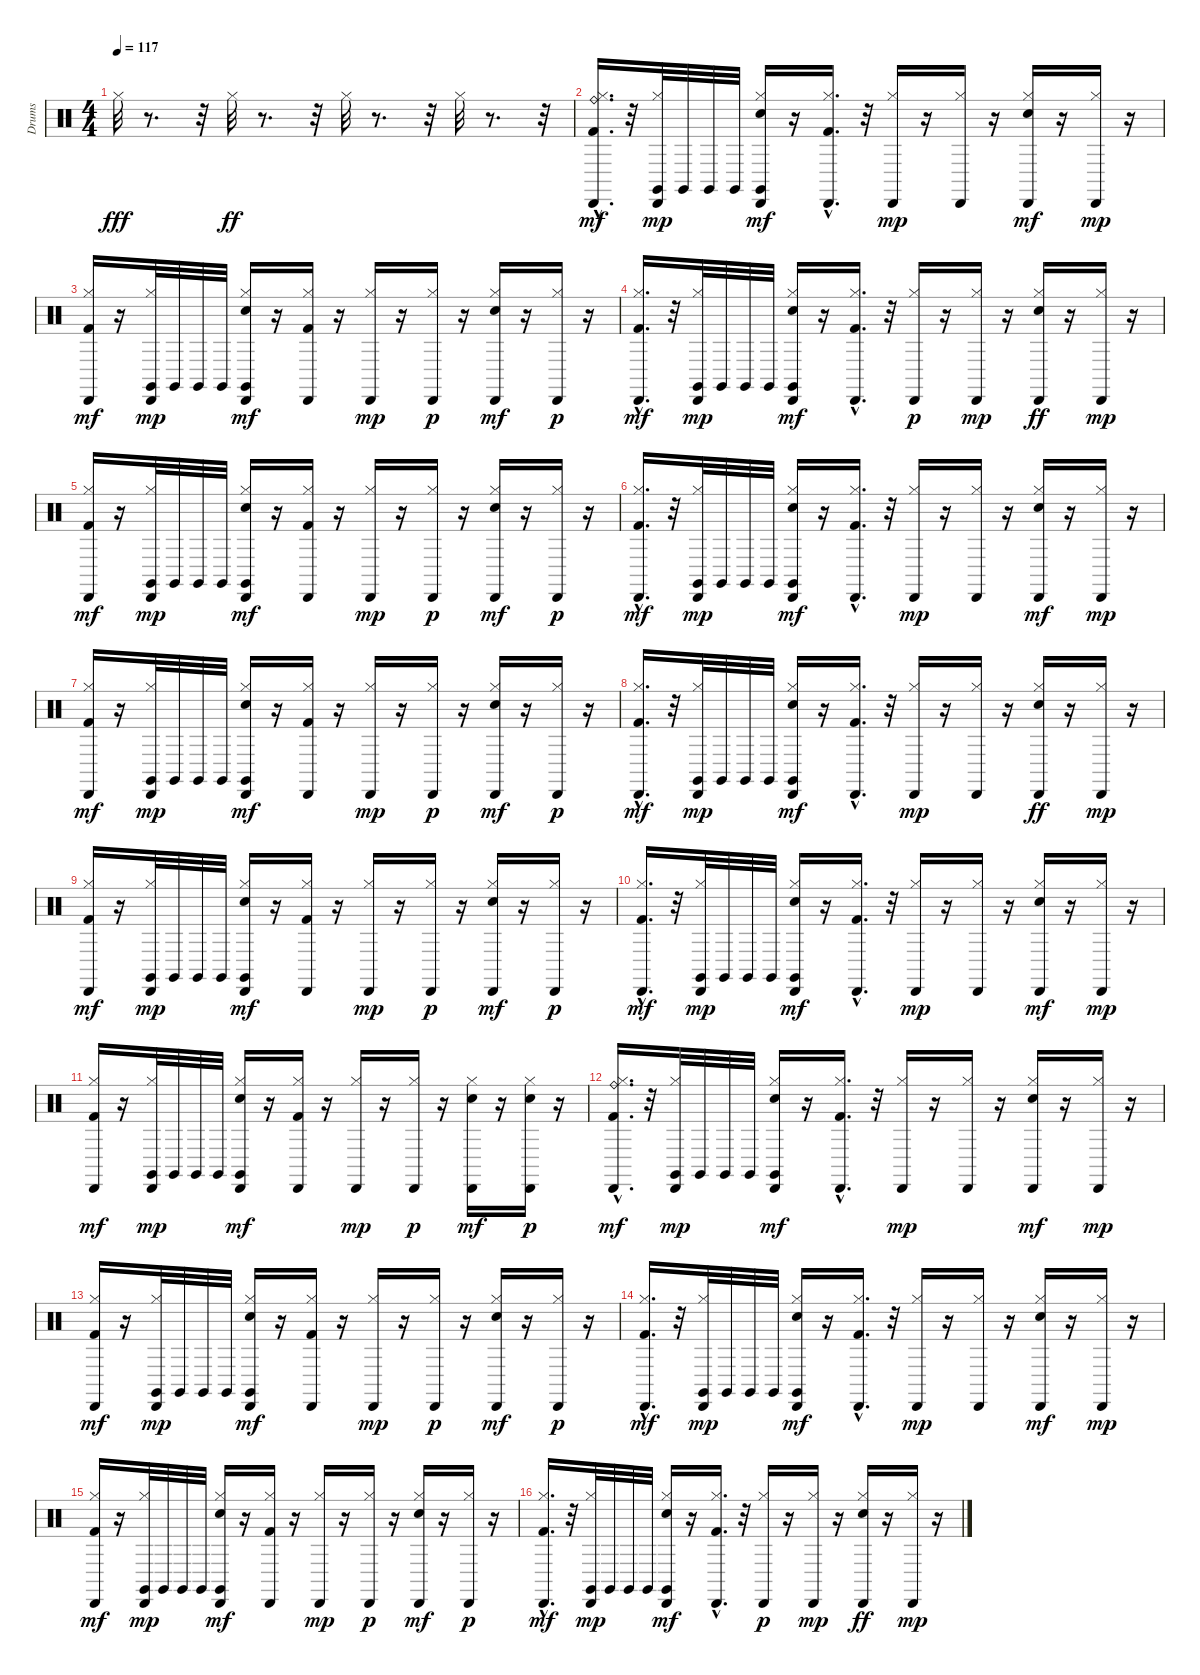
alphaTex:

\track ("Drums" "Drums") {instrument percussion}
\staff {score}
\articulation defaults
\ts (4 4)
\tempo 117
\clef neutral
\ks c "Hi-Hat (closed)".32{dy fff}
r.8{d} r.32 "Hi-Hat (closed)".32{dy ff} r.8{d} r.32 "Hi-Hat (closed)".32 r.8{d} r.32 "Hi-Hat (closed)".32 r.8{d} r.32 |
("Kick (hit) 2"{hac} "Hi-Hat (closed)" "Ride (bell)" "Cabasa (hit)").16{d dy mf} r.32 ("Hi-Hat (closed)" "Cabasa (hit)" "Claves (hit)").32{dy mp} "Claves (hit)".32 "Claves (hit)".32 "Claves (hit)".32 ("Electric Snare (hit)" "Hi-Hat (closed)" "Cabasa (hit)" "Claves (hit)").16{dy mf} r.16 ("Kick (hit) 2"{hac} "Hi-Hat (closed)" "Cabasa (hit)").16{d} r.32 ("Hi-Hat (closed)" "Cabasa (hit)").16{dy mp} r.16 ("Hi-Hat (closed)" "Cabasa (hit)").16 r.16 ("Electric Snare (hit)" "Hi-Hat (closed)" "Cabasa (hit)").16{dy mf} r.16 ("Hi-Hat (closed)" "Cabasa (hit)").16{dy mp} r.16 |
("Kick (hit) 2" "Hi-Hat (closed)" "Cabasa (hit)").16{dy mf} r.16 ("Hi-Hat (closed)" "Cabasa (hit)" "Claves (hit)").32{dy mp} "Claves (hit)".32 "Claves (hit)".32 "Claves (hit)".32 ("Electric Snare (hit)" "Hi-Hat (closed)" "Cabasa (hit)" "Claves (hit)").16{dy mf} r.16 ("Kick (hit) 2" "Hi-Hat (closed)" "Cabasa (hit)").16 r.16 ("Hi-Hat (closed)" "Cabasa (hit)").16{dy mp} r.16 ("Hi-Hat (closed)" "Cabasa (hit)").16{dy p} r.16 ("Electric Snare (hit)" "Hi-Hat (closed)" "Cabasa (hit)").16{dy mf} r.16 ("Hi-Hat (closed)" "Cabasa (hit)").16{dy p} r.16 |
("Kick (hit) 2"{hac} "Hi-Hat (closed)" "Cabasa (hit)").16{d dy mf} r.32 ("Hi-Hat (closed)" "Cabasa (hit)" "Claves (hit)").32{dy mp} "Claves (hit)".32 "Claves (hit)".32 "Claves (hit)".32 ("Electric Snare (hit)" "Hi-Hat (closed)" "Cabasa (hit)" "Claves (hit)").16{dy mf} r.16 ("Kick (hit) 2"{hac} "Hi-Hat (closed)" "Cabasa (hit)").16{d} r.32 ("Hi-Hat (closed)" "Cabasa (hit)").16{dy p} r.16 ("Hi-Hat (closed)" "Cabasa (hit)").16{dy mp} r.16 ("Electric Snare (hit)" "Hi-Hat (closed)" "Cabasa (hit)").16{dy ff} r.16 ("Hi-Hat (closed)" "Cabasa (hit)").16{dy mp} r.16 |
("Kick (hit) 2" "Hi-Hat (closed)" "Cabasa (hit)").16{dy mf} r.16 ("Hi-Hat (closed)" "Cabasa (hit)" "Claves (hit)").32{dy mp} "Claves (hit)".32 "Claves (hit)".32 "Claves (hit)".32 ("Electric Snare (hit)" "Hi-Hat (closed)" "Cabasa (hit)" "Claves (hit)").16{dy mf} r.16 ("Kick (hit) 2" "Hi-Hat (closed)" "Cabasa (hit)").16 r.16 ("Hi-Hat (closed)" "Cabasa (hit)").16{dy mp} r.16 ("Hi-Hat (closed)" "Cabasa (hit)").16{dy p} r.16 ("Electric Snare (hit)" "Hi-Hat (closed)" "Cabasa (hit)").16{dy mf} r.16 ("Hi-Hat (closed)" "Cabasa (hit)").16{dy p} r.16 |
("Kick (hit) 2"{hac} "Hi-Hat (closed)" "Cabasa (hit)").16{d dy mf} r.32 ("Hi-Hat (closed)" "Cabasa (hit)" "Claves (hit)").32{dy mp} "Claves (hit)".32 "Claves (hit)".32 "Claves (hit)".32 ("Electric Snare (hit)" "Hi-Hat (closed)" "Cabasa (hit)" "Claves (hit)").16{dy mf} r.16 ("Kick (hit) 2"{hac} "Hi-Hat (closed)" "Cabasa (hit)").16{d} r.32 ("Hi-Hat (closed)" "Cabasa (hit)").16{dy mp} r.16 ("Hi-Hat (closed)" "Cabasa (hit)").16 r.16 ("Electric Snare (hit)" "Hi-Hat (closed)" "Cabasa (hit)").16{dy mf} r.16 ("Hi-Hat (closed)" "Cabasa (hit)").16{dy mp} r.16 |
("Kick (hit) 2" "Hi-Hat (closed)" "Cabasa (hit)").16{dy mf} r.16 ("Hi-Hat (closed)" "Cabasa (hit)" "Claves (hit)").32{dy mp} "Claves (hit)".32 "Claves (hit)".32 "Claves (hit)".32 ("Electric Snare (hit)" "Hi-Hat (closed)" "Cabasa (hit)" "Claves (hit)").16{dy mf} r.16 ("Kick (hit) 2" "Hi-Hat (closed)" "Cabasa (hit)").16 r.16 ("Hi-Hat (closed)" "Cabasa (hit)").16{dy mp} r.16 ("Hi-Hat (closed)" "Cabasa (hit)").16{dy p} r.16 ("Electric Snare (hit)" "Hi-Hat (closed)" "Cabasa (hit)").16{dy mf} r.16 ("Hi-Hat (closed)" "Cabasa (hit)").16{dy p} r.16 |
("Kick (hit) 2"{hac} "Hi-Hat (closed)" "Cabasa (hit)").16{d dy mf} r.32 ("Hi-Hat (closed)" "Cabasa (hit)" "Claves (hit)").32{dy mp} "Claves (hit)".32 "Claves (hit)".32 "Claves (hit)".32 ("Electric Snare (hit)" "Hi-Hat (closed)" "Cabasa (hit)" "Claves (hit)").16{dy mf} r.16 ("Kick (hit) 2"{hac} "Hi-Hat (closed)" "Cabasa (hit)").16{d} r.32 ("Hi-Hat (closed)" "Cabasa (hit)").16{dy mp} r.16 ("Hi-Hat (closed)" "Cabasa (hit)").16 r.16 ("Electric Snare (hit)" "Hi-Hat (closed)" "Cabasa (hit)").16{dy ff} r.16 ("Hi-Hat (closed)" "Cabasa (hit)").16{dy mp} r.16 |
("Kick (hit) 2" "Hi-Hat (closed)" "Cabasa (hit)").16{dy mf} r.16 ("Hi-Hat (closed)" "Cabasa (hit)" "Claves (hit)").32{dy mp} "Claves (hit)".32 "Claves (hit)".32 "Claves (hit)".32 ("Electric Snare (hit)" "Hi-Hat (closed)" "Cabasa (hit)" "Claves (hit)").16{dy mf} r.16 ("Kick (hit) 2" "Hi-Hat (closed)" "Cabasa (hit)").16 r.16 ("Hi-Hat (closed)" "Cabasa (hit)").16{dy mp} r.16 ("Hi-Hat (closed)" "Cabasa (hit)").16{dy p} r.16 ("Electric Snare (hit)" "Hi-Hat (closed)" "Cabasa (hit)").16{dy mf} r.16 ("Hi-Hat (closed)" "Cabasa (hit)").16{dy p} r.16 |
("Kick (hit) 2"{hac} "Hi-Hat (closed)" "Cabasa (hit)").16{d dy mf} r.32 ("Hi-Hat (closed)" "Cabasa (hit)" "Claves (hit)").32{dy mp} "Claves (hit)".32 "Claves (hit)".32 "Claves (hit)".32 ("Electric Snare (hit)" "Hi-Hat (closed)" "Cabasa (hit)" "Claves (hit)").16{dy mf} r.16 ("Kick (hit) 2"{hac} "Hi-Hat (closed)" "Cabasa (hit)").16{d} r.32 ("Hi-Hat (closed)" "Cabasa (hit)").16{dy mp} r.16 ("Hi-Hat (closed)" "Cabasa (hit)").16 r.16 ("Electric Snare (hit)" "Hi-Hat (closed)" "Cabasa (hit)").16{dy mf} r.16 ("Hi-Hat (closed)" "Cabasa (hit)").16{dy mp} r.16 |
("Kick (hit) 2" "Hi-Hat (closed)" "Cabasa (hit)").16{dy mf} r.16 ("Hi-Hat (closed)" "Cabasa (hit)" "Claves (hit)").32{dy mp} "Claves (hit)".32 "Claves (hit)".32 "Claves (hit)".32 ("Electric Snare (hit)" "Hi-Hat (closed)" "Cabasa (hit)" "Claves (hit)").16{dy mf} r.16 ("Kick (hit) 2" "Hi-Hat (closed)" "Cabasa (hit)").16 r.16 ("Hi-Hat (closed)" "Cabasa (hit)").16{dy mp} r.16 ("Hi-Hat (closed)" "Cabasa (hit)").16{dy p} r.16 ("Electric Snare (hit)" "Hi-Hat (closed)" "Cabasa (hit)").16{dy mf} r.16 ("Electric Snare (hit)" "Hi-Hat (closed)" "Cabasa (hit)").16{dy p} r.16 |
("Kick (hit) 2"{hac} "Hi-Hat (closed)" "Ride (bell)" "Cabasa (hit)").16{d dy mf} r.32 ("Hi-Hat (closed)" "Cabasa (hit)" "Claves (hit)").32{dy mp} "Claves (hit)".32 "Claves (hit)".32 "Claves (hit)".32 ("Electric Snare (hit)" "Hi-Hat (closed)" "Cabasa (hit)" "Claves (hit)").16{dy mf} r.16 ("Kick (hit) 2"{hac} "Hi-Hat (closed)" "Cabasa (hit)").16{d} r.32 ("Hi-Hat (closed)" "Cabasa (hit)").16{dy mp} r.16 ("Hi-Hat (closed)" "Cabasa (hit)").16 r.16 ("Electric Snare (hit)" "Hi-Hat (closed)" "Cabasa (hit)").16{dy mf} r.16 ("Hi-Hat (closed)" "Cabasa (hit)").16{dy mp} r.16 |
("Kick (hit) 2" "Hi-Hat (closed)" "Cabasa (hit)").16{dy mf} r.16 ("Hi-Hat (closed)" "Cabasa (hit)" "Claves (hit)").32{dy mp} "Claves (hit)".32 "Claves (hit)".32 "Claves (hit)".32 ("Electric Snare (hit)" "Hi-Hat (closed)" "Cabasa (hit)" "Claves (hit)").16{dy mf} r.16 ("Kick (hit) 2" "Hi-Hat (closed)" "Cabasa (hit)").16 r.16 ("Hi-Hat (closed)" "Cabasa (hit)").16{dy mp} r.16 ("Hi-Hat (closed)" "Cabasa (hit)").16{dy p} r.16 ("Electric Snare (hit)" "Hi-Hat (closed)" "Cabasa (hit)").16{dy mf} r.16 ("Hi-Hat (closed)" "Cabasa (hit)").16{dy p} r.16 |
("Kick (hit) 2"{hac} "Hi-Hat (closed)" "Cabasa (hit)").16{d dy mf} r.32 ("Hi-Hat (closed)" "Cabasa (hit)" "Claves (hit)").32{dy mp} "Claves (hit)".32 "Claves (hit)".32 "Claves (hit)".32 ("Electric Snare (hit)" "Hi-Hat (closed)" "Cabasa (hit)" "Claves (hit)").16{dy mf} r.16 ("Kick (hit) 2"{hac} "Hi-Hat (closed)" "Cabasa (hit)").16{d} r.32 ("Hi-Hat (closed)" "Cabasa (hit)").16{dy mp} r.16 ("Hi-Hat (closed)" "Cabasa (hit)").16 r.16 ("Electric Snare (hit)" "Hi-Hat (closed)" "Cabasa (hit)").16{dy mf} r.16 ("Hi-Hat (closed)" "Cabasa (hit)").16{dy mp} r.16 |
("Kick (hit) 2" "Hi-Hat (closed)" "Cabasa (hit)").16{dy mf} r.16 ("Hi-Hat (closed)" "Cabasa (hit)" "Claves (hit)").32{dy mp} "Claves (hit)".32 "Claves (hit)".32 "Claves (hit)".32 ("Electric Snare (hit)" "Hi-Hat (closed)" "Cabasa (hit)" "Claves (hit)").16{dy mf} r.16 ("Kick (hit) 2" "Hi-Hat (closed)" "Cabasa (hit)").16 r.16 ("Hi-Hat (closed)" "Cabasa (hit)").16{dy mp} r.16 ("Hi-Hat (closed)" "Cabasa (hit)").16{dy p} r.16 ("Electric Snare (hit)" "Hi-Hat (closed)" "Cabasa (hit)").16{dy mf} r.16 ("Hi-Hat (closed)" "Cabasa (hit)").16{dy p} r.16 |
("Kick (hit) 2"{hac} "Hi-Hat (closed)" "Cabasa (hit)").16{d dy mf} r.32 ("Hi-Hat (closed)" "Cabasa (hit)" "Claves (hit)").32{dy mp} "Claves (hit)".32 "Claves (hit)".32 "Claves (hit)".32 ("Electric Snare (hit)" "Hi-Hat (closed)" "Cabasa (hit)" "Claves (hit)").16{dy mf} r.16 ("Kick (hit) 2"{hac} "Hi-Hat (closed)" "Cabasa (hit)").16{d} r.32 ("Hi-Hat (closed)" "Cabasa (hit)").16{dy p} r.16 ("Hi-Hat (closed)" "Cabasa (hit)").16{dy mp} r.16 ("Electric Snare (hit)" "Hi-Hat (closed)" "Cabasa (hit)").16{dy ff} r.16 ("Hi-Hat (closed)" "Cabasa (hit)").16{dy mp} r.16
